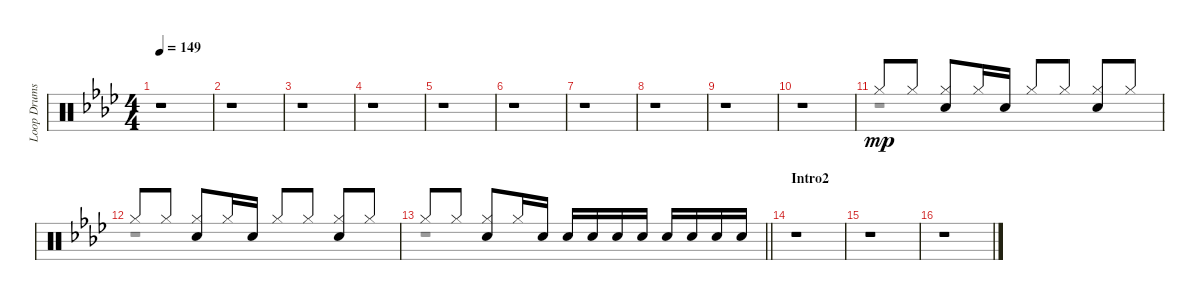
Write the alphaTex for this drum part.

\track ("Loop Drums" "Loop Drums") {instrument percussion}
\staff {score}
\articulation defaults
\voice
\ts (4 4)
\tempo 149
\clef neutral
\ks ab
r.1{dy mp} |
r.1 |
r.1 |
r.1 |
r.1 |
r.1 |
r.1 |
r.1 |
r.1 |
r.1 |
"Hi-Hat (closed)".8 "Hi-Hat (closed)".8 ("Hi-Hat (closed)" "Electric Snare (hit)").8 "Hi-Hat (closed)".16 "Electric Snare (hit)".16 "Hi-Hat (closed)".8 "Hi-Hat (closed)".8 ("Hi-Hat (closed)" "Electric Snare (hit)").8 "Hi-Hat (closed)".8 |
"Hi-Hat (closed)".8 "Hi-Hat (closed)".8 ("Hi-Hat (closed)" "Electric Snare (hit)").8 "Hi-Hat (closed)".16 "Electric Snare (hit)".16 "Hi-Hat (closed)".8 "Hi-Hat (closed)".8 ("Hi-Hat (closed)" "Electric Snare (hit)").8 "Hi-Hat (closed)".8 |
\barLineRight lightlight "Hi-Hat (closed)".8 "Hi-Hat (closed)".8
("Hi-Hat (closed)" "Electric Snare (hit)").8 "Hi-Hat (closed)".16 "Electric Snare (hit)".16 "Electric Snare (hit)".16 "Electric Snare (hit)".16 "Electric Snare (hit)".16 "Electric Snare (hit)".16 "Electric Snare (hit)".16 "Electric Snare (hit)".16 "Electric Snare (hit)".16 "Electric Snare (hit)".16 |
\section ("" "Intro2")
r.1 |
r.1 |
r.1
\voice
\clef neutral
\ottava regular
\simile none
\ks ab
r.1{dy f} |
r.1 |
r.1 |
r.1 |
r.1 |
r.1 |
r.1 |
r.1 |
r.1 |
r.1 |
r.1 |
r.1 |
\barLineRight lightlight
r.1 |
r.1 |
r.1 |
r.1
